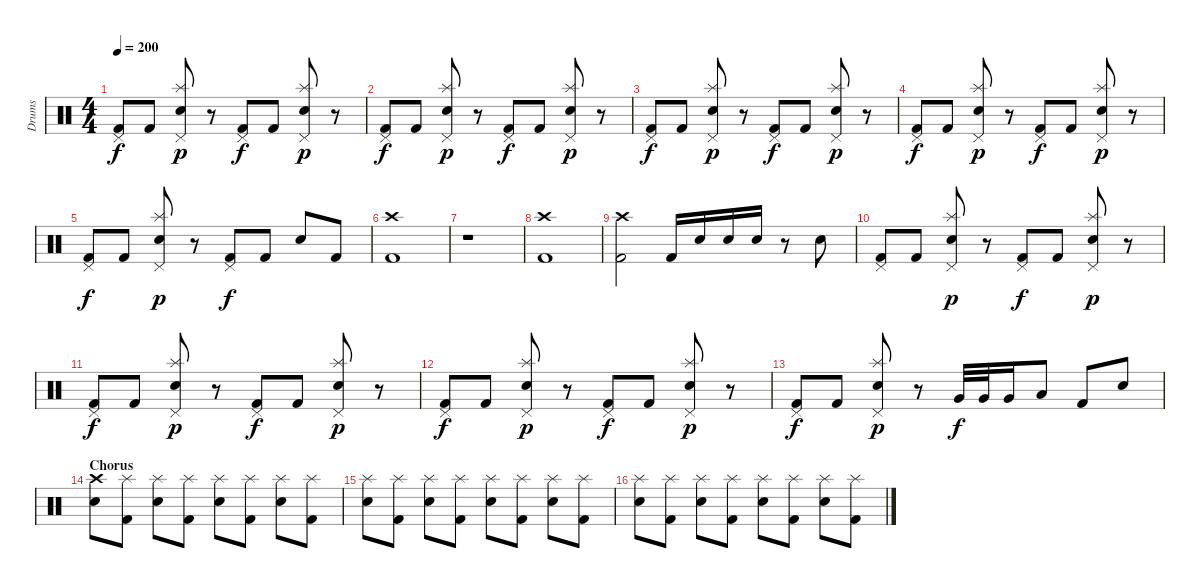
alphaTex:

\track ("Drums" "Drums") {instrument percussion}
\staff {score}
\articulation defaults
\ts (4 4)
\tempo 200
\clef neutral
\ks c
("Pedal Hi-Hat (hit)" "Kick (hit) 2").8{dy f} "Kick (hit) 2".8 ("Pedal Hi-Hat (hit)" "Splash (hit)" "Electric Snare (hit)").8{dy p} r.8 ("Pedal Hi-Hat (hit)" "Kick (hit) 2").8{dy f} "Kick (hit) 2".8 ("Pedal Hi-Hat (hit)" "Splash (hit)" "Electric Snare (hit)").8{dy p} r.8 |
("Pedal Hi-Hat (hit)" "Kick (hit) 2").8{dy f} "Kick (hit) 2".8 ("Pedal Hi-Hat (hit)" "Splash (hit)" "Electric Snare (hit)").8{dy p} r.8 ("Pedal Hi-Hat (hit)" "Kick (hit) 2").8{dy f} "Kick (hit) 2".8 ("Pedal Hi-Hat (hit)" "Splash (hit)" "Electric Snare (hit)").8{dy p} r.8 |
("Pedal Hi-Hat (hit)" "Kick (hit) 2").8{dy f} "Kick (hit) 2".8 ("Pedal Hi-Hat (hit)" "Splash (hit)" "Electric Snare (hit)").8{dy p} r.8 ("Pedal Hi-Hat (hit)" "Kick (hit) 2").8{dy f} "Kick (hit) 2".8 ("Pedal Hi-Hat (hit)" "Splash (hit)" "Electric Snare (hit)").8{dy p} r.8 |
("Pedal Hi-Hat (hit)" "Kick (hit) 2").8{dy f} "Kick (hit) 2".8 ("Pedal Hi-Hat (hit)" "Splash (hit)" "Electric Snare (hit)").8{dy p} r.8 ("Pedal Hi-Hat (hit)" "Kick (hit) 2").8{dy f} "Kick (hit) 2".8 ("Pedal Hi-Hat (hit)" "Splash (hit)" "Electric Snare (hit)").8{dy p} r.8 |
("Pedal Hi-Hat (hit)" "Kick (hit) 2").8{dy f} "Kick (hit) 2".8 ("Pedal Hi-Hat (hit)" "Splash (hit)" "Electric Snare (hit)").8{dy p} r.8 ("Pedal Hi-Hat (hit)" "Kick (hit) 2").8{dy f} "Kick (hit) 2".8 "Electric Snare (hit)".8 "Kick (hit) 2".8 |
("Crash high (hit)" "Kick (hit) 2").1 |
r.1 |
("Crash high (hit)" "Kick (hit) 2").1 |
("Crash high (hit)" "Kick (hit) 2").2 "Kick (hit) 2".16 "Electric Snare (hit)".16 "Electric Snare (hit)".16 "Electric Snare (hit)".16 r.8 "Electric Snare (hit)".8 |
("Pedal Hi-Hat (hit)" "Kick (hit) 2").8 "Kick (hit) 2".8 ("Pedal Hi-Hat (hit)" "Splash (hit)" "Electric Snare (hit)").8{dy p} r.8 ("Pedal Hi-Hat (hit)" "Kick (hit) 2").8{dy f} "Kick (hit) 2".8 ("Pedal Hi-Hat (hit)" "Splash (hit)" "Electric Snare (hit)").8{dy p} r.8 |
("Pedal Hi-Hat (hit)" "Kick (hit) 2").8{dy f} "Kick (hit) 2".8 ("Pedal Hi-Hat (hit)" "Splash (hit)" "Electric Snare (hit)").8{dy p} r.8 ("Pedal Hi-Hat (hit)" "Kick (hit) 2").8{dy f} "Kick (hit) 2".8 ("Pedal Hi-Hat (hit)" "Splash (hit)" "Electric Snare (hit)").8{dy p} r.8 |
("Pedal Hi-Hat (hit)" "Kick (hit) 2").8{dy f} "Kick (hit) 2".8 ("Pedal Hi-Hat (hit)" "Splash (hit)" "Electric Snare (hit)").8{dy p} r.8 ("Pedal Hi-Hat (hit)" "Kick (hit) 2").8{dy f} "Kick (hit) 2".8 ("Pedal Hi-Hat (hit)" "Splash (hit)" "Electric Snare (hit)").8{dy p} r.8 |
("Pedal Hi-Hat (hit)" "Kick (hit) 2").8{dy f} "Kick (hit) 2".8 ("Pedal Hi-Hat (hit)" "Splash (hit)" "Electric Snare (hit)").8{dy p} r.8 "Very Low Tom (hit)".32{dy f} "Very Low Tom (hit)".32 "Very Low Tom (hit)".16 "Low Floor Tom (hit)".8 "Kick (hit) 2".8 "Electric Snare (hit)".8 |
\section ("" "Chorus")
("Crash high (hit)" "Electric Snare (hit)").8 ("Splash (hit)" "Kick (hit) 2").8 ("Splash (hit)" "Electric Snare (hit)").8 ("Splash (hit)" "Kick (hit) 2").8 ("Splash (hit)" "Electric Snare (hit)").8 ("Splash (hit)" "Kick (hit) 2").8 ("Splash (hit)" "Electric Snare (hit)").8 ("Splash (hit)" "Kick (hit) 2").8 |
("Splash (hit)" "Electric Snare (hit)").8 ("Splash (hit)" "Kick (hit) 2").8 ("Splash (hit)" "Electric Snare (hit)").8 ("Splash (hit)" "Kick (hit) 2").8 ("Splash (hit)" "Electric Snare (hit)").8 ("Splash (hit)" "Kick (hit) 2").8 ("Splash (hit)" "Electric Snare (hit)").8 ("Splash (hit)" "Kick (hit) 2").8 |
("Splash (hit)" "Electric Snare (hit)").8 ("Splash (hit)" "Kick (hit) 2").8 ("Splash (hit)" "Electric Snare (hit)").8 ("Splash (hit)" "Kick (hit) 2").8 ("Splash (hit)" "Electric Snare (hit)").8 ("Splash (hit)" "Kick (hit) 2").8 ("Splash (hit)" "Electric Snare (hit)").8 ("Splash (hit)" "Kick (hit) 2").8
